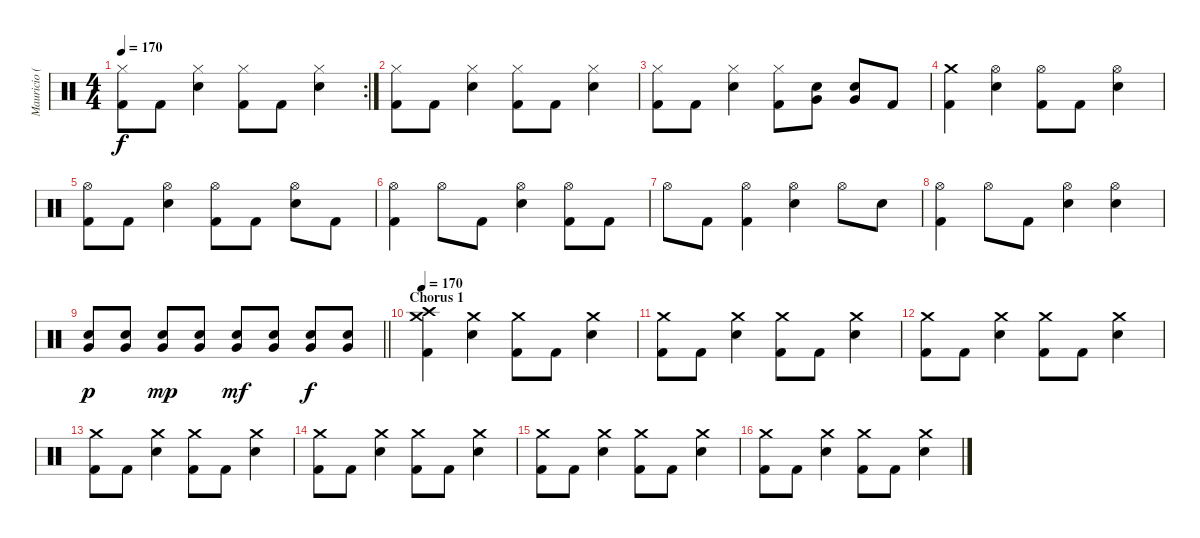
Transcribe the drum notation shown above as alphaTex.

\track ("Mauricio (Drum)" "Mauricio (") {instrument percussion}
\staff {score}
\articulation defaults
\rc 2
\ts (4 4)
\tempo 170
\clef neutral
\ks c
("Hi-Hat (closed)" "Kick (hit) 2").8{dy f} "Kick (hit) 2".8 ("Hi-Hat (closed)" "Snare (hit) 2").4 ("Hi-Hat (closed)" "Kick (hit) 2").8 "Kick (hit) 2".8 ("Hi-Hat (closed)" "Snare (hit) 2").4 |
("Hi-Hat (closed)" "Kick (hit) 2").8 "Kick (hit) 2".8 ("Hi-Hat (closed)" "Snare (hit) 2").4 ("Hi-Hat (closed)" "Kick (hit) 2").8 "Kick (hit) 2".8 ("Hi-Hat (closed)" "Snare (hit) 2").4 |
("Hi-Hat (closed)" "Kick (hit) 2").8 "Kick (hit) 2".8 ("Hi-Hat (closed)" "Snare (hit) 2").4 ("Hi-Hat (closed)" "Kick (hit) 2").8 ("Very Low Tom (hit)" "Snare (hit) 2").8 ("Very Low Tom (hit)" "Snare (hit) 2").8 "Kick (hit) 2".8 |
("Crash medium (hit)" "Kick (hit) 2").4 ("Hi-Hat (open)" "Snare (hit) 2").4 ("Hi-Hat (open)" "Kick (hit) 2").8 "Kick (hit) 2".8 ("Hi-Hat (open)" "Snare (hit) 2").4 |
("Hi-Hat (open)" "Kick (hit) 2").8 "Kick (hit) 2".8 ("Hi-Hat (open)" "Snare (hit) 2").4 ("Hi-Hat (open)" "Kick (hit) 2").8 "Kick (hit) 2".8 ("Hi-Hat (open)" "Snare (hit) 2").8 "Kick (hit) 2".8 |
("Hi-Hat (open)" "Kick (hit) 2").4 "Hi-Hat (open)".8 "Kick (hit) 2".8 ("Hi-Hat (open)" "Snare (hit) 2").4 ("Hi-Hat (open)" "Kick (hit) 2").8 "Kick (hit) 2".8 |
"Hi-Hat (open)".8 "Kick (hit) 2".8 ("Hi-Hat (open)" "Kick (hit) 2").4 ("Hi-Hat (open)" "Snare (hit) 2").4 "Hi-Hat (open)".8 "Snare (hit) 2".8 |
("Hi-Hat (open)" "Kick (hit) 2").4 "Hi-Hat (open)".8 "Kick (hit) 2".8 ("Hi-Hat (open)" "Snare (hit) 2").4 ("Hi-Hat (open)" "Snare (hit) 2").4 |
\barLineRight lightlight
("Very Low Tom (hit)" "Snare (hit) 2").8{dy p} ("Very Low Tom (hit)" "Snare (hit) 2").8 ("Very Low Tom (hit)" "Snare (hit) 2").8{dy mp} ("Very Low Tom (hit)" "Snare (hit) 2").8 ("Very Low Tom (hit)" "Snare (hit) 2").8{dy mf} ("Very Low Tom (hit)" "Snare (hit) 2").8 ("Very Low Tom (hit)" "Snare (hit) 2").8{dy f} ("Very Low Tom (hit)" "Snare (hit) 2").8 |
\section ("" "Chorus 1")
\tempo 170
("Crash medium (hit)" "Crash high (hit)" "Kick (hit) 2").4 ("Crash medium (hit)" "Snare (hit) 2").4 ("Crash medium (hit)" "Kick (hit) 2").8 "Kick (hit) 2".8 ("Crash medium (hit)" "Snare (hit) 2").4 |
("Crash medium (hit)" "Kick (hit) 2").8 "Kick (hit) 2".8 ("Crash medium (hit)" "Snare (hit) 2").4 ("Crash medium (hit)" "Kick (hit) 2").8 "Kick (hit) 2".8 ("Crash medium (hit)" "Snare (hit) 2").4 |
("Crash medium (hit)" "Kick (hit) 2").8 "Kick (hit) 2".8 ("Crash medium (hit)" "Snare (hit) 2").4 ("Crash medium (hit)" "Kick (hit) 2").8 "Kick (hit) 2".8 ("Crash medium (hit)" "Snare (hit) 2").4 |
("Crash medium (hit)" "Kick (hit) 2").8 "Kick (hit) 2".8 ("Crash medium (hit)" "Snare (hit) 2").4 ("Crash medium (hit)" "Kick (hit) 2").8 "Kick (hit) 2".8 ("Crash medium (hit)" "Snare (hit) 2").4 |
("Crash medium (hit)" "Kick (hit) 2").8 "Kick (hit) 2".8 ("Crash medium (hit)" "Snare (hit) 2").4 ("Crash medium (hit)" "Kick (hit) 2").8 "Kick (hit) 2".8 ("Crash medium (hit)" "Snare (hit) 2").4 |
("Crash medium (hit)" "Kick (hit) 2").8 "Kick (hit) 2".8 ("Crash medium (hit)" "Snare (hit) 2").4 ("Crash medium (hit)" "Kick (hit) 2").8 "Kick (hit) 2".8 ("Crash medium (hit)" "Snare (hit) 2").4 |
("Crash medium (hit)" "Kick (hit) 2").8 "Kick (hit) 2".8 ("Crash medium (hit)" "Snare (hit) 2").4 ("Crash medium (hit)" "Kick (hit) 2").8 "Kick (hit) 2".8 ("Crash medium (hit)" "Snare (hit) 2").4
